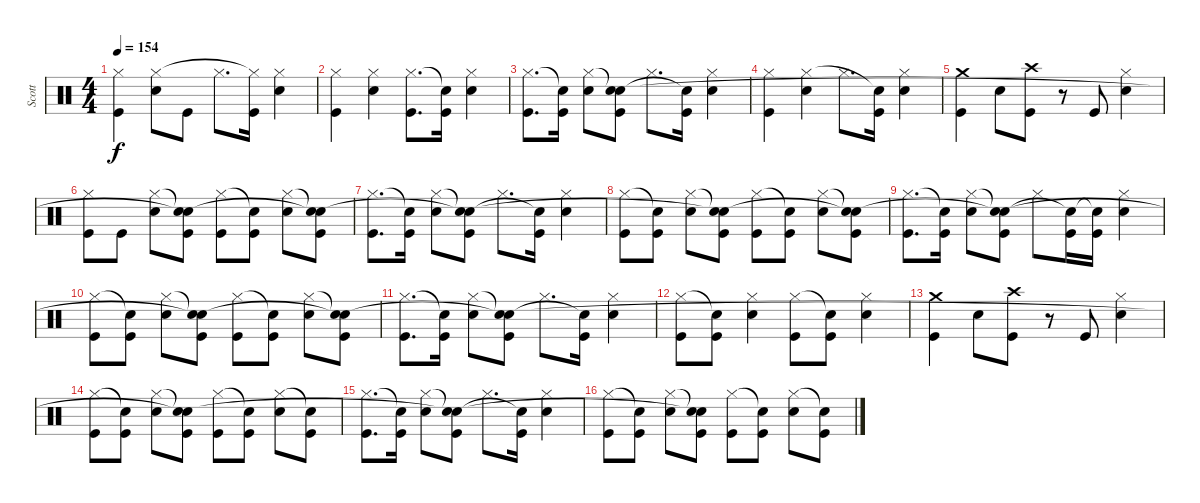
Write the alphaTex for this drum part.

\track ("Scott" "Scott") {instrument percussion}
\staff {score}
\articulation defaults
\ts (4 4)
\tempo 154
\clef neutral
\ks c
("Kick (hit)" "Hi-Hat (closed)").4{dy f} ("Snare (hit) 2" "Hi-Hat (closed)").8 "Kick (hit)".8 "Hi-Hat (closed)".8{d} ("Kick (hit)" "Hi-Hat (closed)"{t}).16 ("Snare (hit) 2" "Hi-Hat (closed)").4 |
("Kick (hit)" "Hi-Hat (closed)").4 ("Snare (hit) 2" "Hi-Hat (closed)").4 ("Kick (hit)" "Hi-Hat (closed)").8{d} ("Kick (hit)" "Snare (hit)"{t}).16 ("Snare (hit) 2" "Hi-Hat (closed)").4 |
("Kick (hit)" "Hi-Hat (closed)").8{d} ("Kick (hit)" "Snare (hit)"{t}).16 ("Snare (hit) 2" "Hi-Hat (closed)").8 ("Kick (hit)" "Snare (hit)"{t} "Snare (hit)").8 "Hi-Hat (closed)".8{d} ("Kick (hit)" "Snare (hit)"{t}).16 ("Snare (hit) 2" "Hi-Hat (closed)").4 |
("Kick (hit)" "Hi-Hat (closed)").4 ("Snare (hit) 2" "Hi-Hat (closed)").4 "Hi-Hat (closed)".8{d} ("Kick (hit)" "Snare (hit)"{t}).16 ("Snare (hit) 2" "Hi-Hat (closed)").4 |
("Kick (hit)" "Crash medium (hit)").4 "Snare (hit) 2".8 ("Kick (hit)" "Crash high (hit)").8 r.8 "Kick (hit)".8 ("Snare (hit) 2" "Hi-Hat (closed)").4 |
("Kick (hit)" "Hi-Hat (closed)").8 "Kick (hit)".8 ("Snare (hit) 2" "Hi-Hat (closed)").8 ("Kick (hit)" "Snare (hit)"{t} "Snare (hit)"{t}).8 ("Kick (hit)" "Hi-Hat (closed)").8 ("Kick (hit)" "Snare (hit)"{t}).8 ("Snare (hit) 2" "Hi-Hat (closed)").8 ("Kick (hit)" "Snare (hit)"{t} "Snare (hit)"{t}).8 |
("Kick (hit)" "Hi-Hat (closed)").8{d} ("Kick (hit)" "Snare (hit)"{t}).16 ("Snare (hit) 2" "Hi-Hat (closed)").8 ("Kick (hit)" "Snare (hit)"{t} "Snare (hit)"{t}).8 "Hi-Hat (closed)".8{d} ("Kick (hit)" "Snare (hit)"{t}).16 ("Hi-Hat (closed)" "Snare (hit) 2").4 |
("Kick (hit)" "Hi-Hat (closed)").8 ("Kick (hit)" "Snare (hit)"{t}).8 ("Snare (hit) 2" "Hi-Hat (closed)").8 ("Kick (hit)" "Snare (hit)"{t} "Snare (hit)"{t}).8 ("Kick (hit)" "Hi-Hat (closed)").8 ("Kick (hit)" "Snare (hit)"{t}).8 ("Snare (hit) 2" "Hi-Hat (closed)").8 ("Kick (hit)" "Snare (hit)"{t} "Snare (hit)"{t}).8 |
("Kick (hit)" "Hi-Hat (closed)").8{d} ("Kick (hit)" "Snare (hit)"{t}).16 ("Snare (hit) 2" "Hi-Hat (closed)").8 ("Kick (hit)" "Snare (hit)"{t} "Snare (hit)"{t}).8 "Hi-Hat (closed)".8 ("Kick (hit)" "Snare (hit)"{t}).16 ("Kick (hit)" "Snare (hit)"{t}).16 ("Snare (hit) 2" "Hi-Hat (closed)").4 |
("Kick (hit)" "Hi-Hat (closed)").8 ("Kick (hit)" "Snare (hit)"{t}).8 ("Snare (hit) 2" "Hi-Hat (closed)").8 ("Kick (hit)" "Snare (hit)"{t} "Snare (hit)"{t}).8 ("Kick (hit)" "Hi-Hat (closed)").8 ("Kick (hit)" "Snare (hit)"{t}).8 ("Snare (hit) 2" "Hi-Hat (closed)").8 ("Kick (hit)" "Snare (hit)"{t} "Snare (hit)"{t}).8 |
("Kick (hit)" "Hi-Hat (closed)").8{d} ("Kick (hit)" "Snare (hit)"{t}).16 ("Snare (hit) 2" "Hi-Hat (closed)").8 ("Kick (hit)" "Snare (hit)"{t} "Snare (hit)"{t}).8 "Hi-Hat (closed)".8{d} ("Kick (hit)" "Snare (hit)"{t}).16 ("Snare (hit) 2" "Hi-Hat (closed)").4 |
("Kick (hit)" "Hi-Hat (closed)").8 ("Kick (hit)" "Snare (hit)"{t}).8 ("Snare (hit) 2" "Hi-Hat (closed)").4 ("Kick (hit)" "Hi-Hat (closed)").8 ("Kick (hit)" "Snare (hit)"{t}).8 ("Snare (hit) 2" "Hi-Hat (closed)").4 |
("Kick (hit)" "Crash medium (hit)").4 "Snare (hit) 2".8 ("Kick (hit)" "Crash high (hit)").8 r.8 "Kick (hit)".8 ("Snare (hit) 2" "Hi-Hat (closed)").4 |
("Kick (hit)" "Hi-Hat (closed)").8 ("Kick (hit)" "Snare (hit)"{t}).8 ("Snare (hit) 2" "Hi-Hat (closed)").8 ("Kick (hit)" "Snare (hit)"{t} "Snare (hit)"{t}).8 ("Kick (hit)" "Hi-Hat (closed)").8 ("Kick (hit)" "Snare (hit)"{t}).8 ("Snare (hit) 2" "Hi-Hat (closed)").8 ("Kick (hit)" "Snare (hit)"{t}).8 |
("Kick (hit)" "Hi-Hat (closed)").8{d} ("Kick (hit)" "Snare (hit)"{t}).16 ("Snare (hit) 2" "Hi-Hat (closed)").8 ("Kick (hit)" "Snare (hit)"{t} "Snare (hit)"{t}).8 "Hi-Hat (closed)".8{d} ("Kick (hit)" "Snare (hit)"{t}).16 ("Snare (hit) 2" "Hi-Hat (closed)").4 |
("Kick (hit)" "Hi-Hat (closed)").8 ("Kick (hit)" "Snare (hit)"{t}).8 ("Snare (hit) 2" "Hi-Hat (closed)").8 ("Kick (hit)" "Snare (hit)"{t} "Snare (hit)"{t}).8 ("Kick (hit)" "Hi-Hat (closed)").8 ("Kick (hit)" "Snare (hit)"{t}).8 ("Snare (hit) 2" "Hi-Hat (closed)").8 ("Kick (hit)" "Snare (hit)"{t}).8
